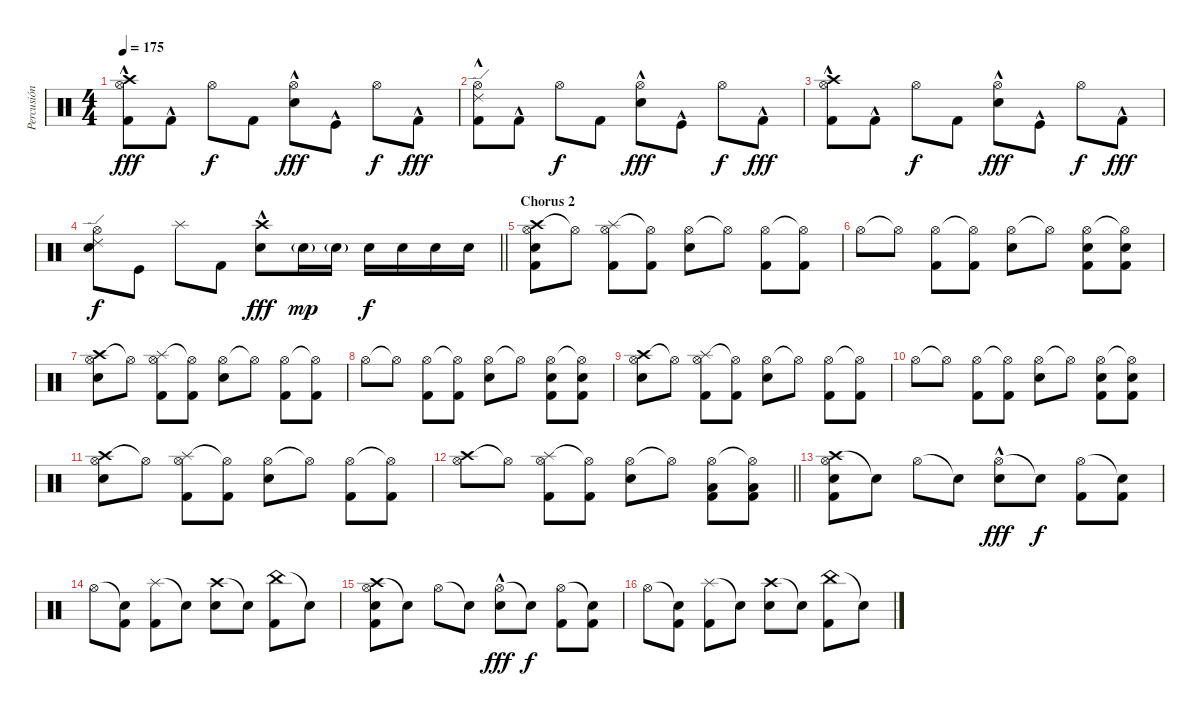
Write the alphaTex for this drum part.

\track ("Percusión" "Percusión") {instrument percussion}
\staff {score}
\articulation defaults
\ts (4 4)
\tempo 175
\clef neutral
\ks c
("Hi-Hat (open)" "Crash high (hit)" "Kick (hit) 2"{hac}).8{dy fff} "Kick (hit) 2"{hac}.8 "Hi-Hat (open)".8{dy f} "Kick (hit) 2".8 ("Hi-Hat (open)" "Electric Snare (hit)"{hac}).8{dy fff} "Kick (hit)"{hac}.8 "Hi-Hat (open)".8{dy f} "Kick (hit) 2"{hac}.8{dy fff} |
("Hi-Hat (open)" "Ride (edge) 2" "Kick (hit) 2"{hac}).8 "Kick (hit) 2"{hac}.8 "Hi-Hat (open)".8{dy f} "Kick (hit) 2".8 ("Hi-Hat (open)" "Electric Snare (hit)"{hac}).8{dy fff} "Kick (hit)"{hac}.8 "Hi-Hat (open)".8{dy f} "Kick (hit) 2"{hac}.8{dy fff} |
("Hi-Hat (open)" "Crash high (hit)" "Kick (hit) 2"{hac}).8 "Kick (hit) 2"{hac}.8 "Hi-Hat (open)".8{dy f} "Kick (hit) 2".8 ("Hi-Hat (open)" "Electric Snare (hit)"{hac}).8{dy fff} "Kick (hit)"{hac}.8 "Hi-Hat (open)".8{dy f} "Kick (hit) 2"{hac}.8{dy fff} |
\barLineRight lightlight
("Hi-Hat (open)" "Ride (edge) 2" "Electric Snare (hit)").8{dy f} "Kick (hit)".8 "Splash (hit)".8 "Kick (hit) 2".8 ("Crash high (hit)" "Electric Snare (hit)"{hac}).8{dy fff} "Electric Snare (hit)"{g}.16{dy mp} "Electric Snare (hit)"{g}.16 "Electric Snare (hit)".16{dy f} "Electric Snare (hit)".16 "Electric Snare (hit)".16 "Electric Snare (hit)".16 |
\section ("" "Chorus 2")
("Crash high (hit)" "Hi-Hat (open)" "Electric Snare (hit)" "Kick (hit) 2").8 "Hi-Hat (open)"{t}.8 ("Splash (hit)" "Hi-Hat (open)" "Kick (hit) 2").8 ("Hi-Hat (open)"{t} "Kick (hit) 2").8 ("Hi-Hat (open)" "Electric Snare (hit)").8 "Hi-Hat (open)"{t}.8 ("Hi-Hat (open)" "Kick (hit) 2").8 ("Hi-Hat (open)"{t} "Kick (hit) 2").8 |
"Hi-Hat (open)".8 "Hi-Hat (open)"{t}.8 ("Hi-Hat (open)" "Kick (hit) 2").8 ("Hi-Hat (open)"{t} "Kick (hit) 2").8 ("Hi-Hat (open)" "Electric Snare (hit)").8 "Hi-Hat (open)"{t}.8 ("Hi-Hat (open)" "Electric Snare (hit)" "Kick (hit) 2").8 ("Hi-Hat (open)"{t} "Electric Snare (hit)" "Kick (hit) 2").8 |
("Crash high (hit)" "Hi-Hat (open)" "Electric Snare (hit)").8 "Hi-Hat (open)"{t}.8 ("Splash (hit)" "Hi-Hat (open)" "Kick (hit) 2").8 ("Hi-Hat (open)"{t} "Kick (hit) 2").8 ("Hi-Hat (open)" "Electric Snare (hit)").8 "Hi-Hat (open)"{t}.8 ("Hi-Hat (open)" "Kick (hit) 2").8 ("Hi-Hat (open)"{t} "Kick (hit) 2").8 |
"Hi-Hat (open)".8 "Hi-Hat (open)"{t}.8 ("Hi-Hat (open)" "Kick (hit) 2").8 ("Hi-Hat (open)"{t} "Kick (hit) 2").8 ("Hi-Hat (open)" "Electric Snare (hit)").8 "Hi-Hat (open)"{t}.8 ("Hi-Hat (open)" "Electric Snare (hit)" "Kick (hit) 2").8 ("Hi-Hat (open)"{t} "Electric Snare (hit)" "Kick (hit) 2").8 |
("Crash high (hit)" "Hi-Hat (open)" "Electric Snare (hit)").8 "Hi-Hat (open)"{t}.8 ("Splash (hit)" "Hi-Hat (open)" "Kick (hit) 2").8 ("Hi-Hat (open)"{t} "Kick (hit) 2").8 ("Hi-Hat (open)" "Electric Snare (hit)").8 "Hi-Hat (open)"{t}.8 ("Hi-Hat (open)" "Kick (hit) 2").8 ("Hi-Hat (open)"{t} "Kick (hit) 2").8 |
"Hi-Hat (open)".8 "Hi-Hat (open)"{t}.8 ("Hi-Hat (open)" "Kick (hit) 2").8 ("Hi-Hat (open)"{t} "Kick (hit) 2").8 ("Hi-Hat (open)" "Electric Snare (hit)").8 "Hi-Hat (open)"{t}.8 ("Hi-Hat (open)" "Electric Snare (hit)" "Kick (hit) 2").8 ("Hi-Hat (open)"{t} "Electric Snare (hit)" "Kick (hit) 2").8 |
("Crash high (hit)" "Hi-Hat (open)" "Electric Snare (hit)").8 "Hi-Hat (open)"{t}.8 ("Splash (hit)" "Hi-Hat (open)" "Kick (hit) 2").8 ("Hi-Hat (open)"{t} "Kick (hit) 2").8 ("Hi-Hat (open)" "Electric Snare (hit)").8 "Hi-Hat (open)"{t}.8 ("Hi-Hat (open)" "Kick (hit) 2").8 ("Hi-Hat (open)"{t} "Kick (hit) 2").8 |
\barLineRight lightlight
("Crash high (hit)" "Hi-Hat (open)").8 "Hi-Hat (open)"{t}.8 ("Splash (hit)" "Hi-Hat (open)" "Kick (hit) 2").8 ("Hi-Hat (open)"{t} "Kick (hit) 2").8 ("Hi-Hat (open)" "Electric Snare (hit)").8 "Hi-Hat (open)"{t}.8 ("Hi-Hat (open)" "Low Floor Tom (hit)" "Kick (hit) 2").8 ("Hi-Hat (open)"{t} "Low Floor Tom (hit)" "Kick (hit) 2").8 |
("Crash high (hit)" "Hi-Hat (open)" "Electric Snare (hit)" "Kick (hit) 2").8 "Snare (hit)"{t}.8 "Hi-Hat (open)".8 "Snare (hit)"{t}.8 ("Hi-Hat (open)" "Electric Snare (hit)"{hac}).8{dy fff} "Snare (hit)"{t}.8{dy f} ("Hi-Hat (open)" "Kick (hit) 2").8 ("Snare (hit)"{t} "Kick (hit) 2").8 |
"Hi-Hat (open)".8 ("Snare (hit)"{t} "Kick (hit) 2").8 ("Splash (hit)" "Kick (hit) 2").8 "Snare (hit)"{t}.8 ("Crash high (hit)" "Electric Snare (hit)").8 "Snare (hit)"{t}.8 ("China (hit)" "Kick (hit) 2").8 "Snare (hit)"{t}.8 |
("Crash high (hit)" "Hi-Hat (open)" "Electric Snare (hit)" "Kick (hit) 2").8 "Snare (hit)"{t}.8 "Hi-Hat (open)".8 "Snare (hit)"{t}.8 ("Hi-Hat (open)" "Electric Snare (hit)"{hac}).8{dy fff} "Snare (hit)"{t}.8{dy f} ("Hi-Hat (open)" "Kick (hit) 2").8 ("Snare (hit)"{t} "Kick (hit) 2").8 |
"Hi-Hat (open)".8 ("Snare (hit)"{t} "Kick (hit) 2").8 ("Splash (hit)" "Kick (hit) 2").8 "Snare (hit)"{t}.8 ("Crash high (hit)" "Electric Snare (hit)").8 "Snare (hit)"{t}.8 ("China (hit)" "Kick (hit) 2").8 "Snare (hit)"{t}.8
